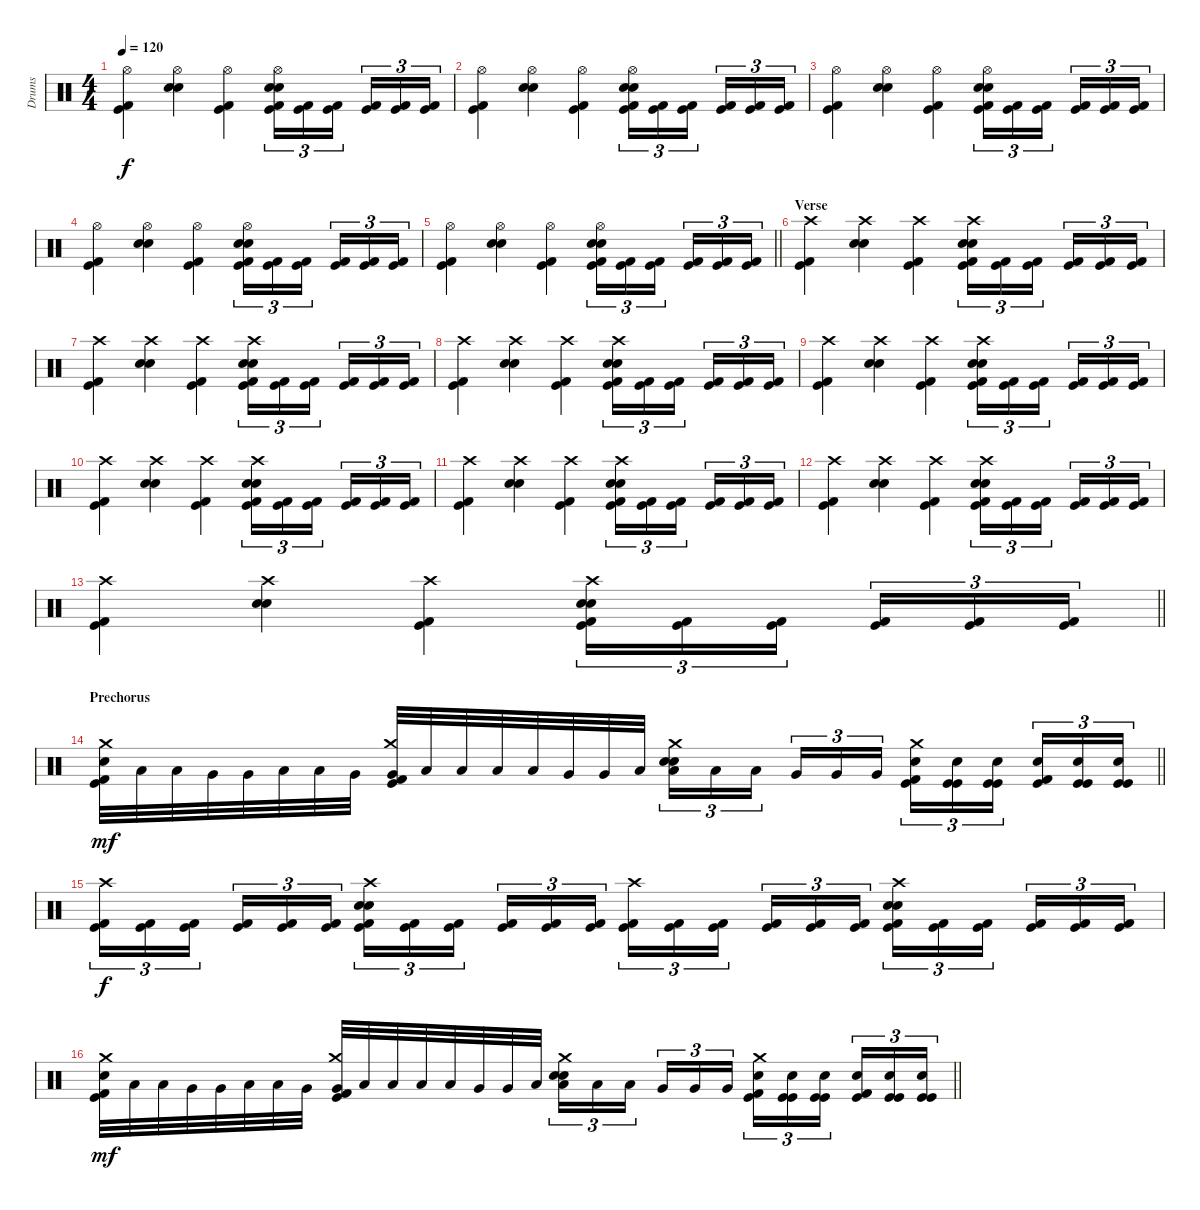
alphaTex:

\track ("Drums" "Drums") {instrument percussion}
\staff {score}
\articulation defaults
\ts (4 4)
\tempo 120
\clef neutral
\ks c
("Hi-Hat (open)" "Kick (hit) 2" "Kick (hit)").4{dy f} ("Hi-Hat (open)" "Electric Snare (hit)" "Electric Snare (hit)").4 ("Hi-Hat (open)" "Kick (hit) 2" "Kick (hit)").4 ("Hi-Hat (open)" "Electric Snare (hit)" "Electric Snare (hit)" "Kick (hit)" "Kick (hit) 2").16{tu (3 2)} ("Kick (hit)" "Kick (hit) 2").16{tu (3 2)} ("Kick (hit)" "Kick (hit) 2").16{tu (3 2) beam splitsecondary} ("Kick (hit)" "Kick (hit) 2").16{tu (3 2)} ("Kick (hit)" "Kick (hit) 2").16{tu (3 2)} ("Kick (hit)" "Kick (hit) 2").16{tu (3 2)} |
("Hi-Hat (open)" "Kick (hit) 2" "Kick (hit)").4 ("Hi-Hat (open)" "Electric Snare (hit)" "Electric Snare (hit)").4 ("Hi-Hat (open)" "Kick (hit) 2" "Kick (hit)").4 ("Hi-Hat (open)" "Electric Snare (hit)" "Electric Snare (hit)" "Kick (hit)" "Kick (hit) 2").16{tu (3 2)} ("Kick (hit)" "Kick (hit) 2").16{tu (3 2)} ("Kick (hit)" "Kick (hit) 2").16{tu (3 2) beam splitsecondary} ("Kick (hit)" "Kick (hit) 2").16{tu (3 2)} ("Kick (hit)" "Kick (hit) 2").16{tu (3 2)} ("Kick (hit)" "Kick (hit) 2").16{tu (3 2)} |
("Hi-Hat (open)" "Kick (hit) 2" "Kick (hit)").4 ("Hi-Hat (open)" "Electric Snare (hit)" "Electric Snare (hit)").4 ("Hi-Hat (open)" "Kick (hit) 2" "Kick (hit)").4 ("Hi-Hat (open)" "Electric Snare (hit)" "Electric Snare (hit)" "Kick (hit)" "Kick (hit) 2").16{tu (3 2)} ("Kick (hit)" "Kick (hit) 2").16{tu (3 2)} ("Kick (hit)" "Kick (hit) 2").16{tu (3 2) beam splitsecondary} ("Kick (hit)" "Kick (hit) 2").16{tu (3 2)} ("Kick (hit)" "Kick (hit) 2").16{tu (3 2)} ("Kick (hit)" "Kick (hit) 2").16{tu (3 2)} |
("Hi-Hat (open)" "Kick (hit) 2" "Kick (hit)").4 ("Hi-Hat (open)" "Electric Snare (hit)" "Electric Snare (hit)").4 ("Hi-Hat (open)" "Kick (hit) 2" "Kick (hit)").4 ("Hi-Hat (open)" "Electric Snare (hit)" "Electric Snare (hit)" "Kick (hit)" "Kick (hit) 2").16{tu (3 2)} ("Kick (hit)" "Kick (hit) 2").16{tu (3 2)} ("Kick (hit)" "Kick (hit) 2").16{tu (3 2) beam splitsecondary} ("Kick (hit)" "Kick (hit) 2").16{tu (3 2)} ("Kick (hit)" "Kick (hit) 2").16{tu (3 2)} ("Kick (hit)" "Kick (hit) 2").16{tu (3 2)} |
\barLineRight lightlight
("Hi-Hat (open)" "Kick (hit) 2" "Kick (hit)").4 ("Hi-Hat (open)" "Electric Snare (hit)" "Electric Snare (hit)").4 ("Hi-Hat (open)" "Kick (hit) 2" "Kick (hit)").4 ("Hi-Hat (open)" "Electric Snare (hit)" "Electric Snare (hit)" "Kick (hit)" "Kick (hit) 2").16{tu (3 2)} ("Kick (hit)" "Kick (hit) 2").16{tu (3 2)} ("Kick (hit)" "Kick (hit) 2").16{tu (3 2) beam splitsecondary} ("Kick (hit)" "Kick (hit) 2").16{tu (3 2)} ("Kick (hit)" "Kick (hit) 2").16{tu (3 2)} ("Kick (hit)" "Kick (hit) 2").16{tu (3 2)} |
\section ("" "Verse")
("Crash high (hit)" "Kick (hit) 2" "Kick (hit)").4 ("Crash high (hit)" "Electric Snare (hit)" "Electric Snare (hit)").4 ("Crash high (hit)" "Kick (hit) 2" "Kick (hit)").4 ("Crash high (hit)" "Electric Snare (hit)" "Electric Snare (hit)" "Kick (hit)" "Kick (hit) 2").16{tu (3 2)} ("Kick (hit)" "Kick (hit) 2").16{tu (3 2)} ("Kick (hit)" "Kick (hit) 2").16{tu (3 2) beam splitsecondary} ("Kick (hit)" "Kick (hit) 2").16{tu (3 2)} ("Kick (hit)" "Kick (hit) 2").16{tu (3 2)} ("Kick (hit)" "Kick (hit) 2").16{tu (3 2)} |
("Crash high (hit)" "Kick (hit) 2" "Kick (hit)").4 ("Crash high (hit)" "Electric Snare (hit)" "Electric Snare (hit)").4 ("Crash high (hit)" "Kick (hit) 2" "Kick (hit)").4 ("Crash high (hit)" "Electric Snare (hit)" "Electric Snare (hit)" "Kick (hit)" "Kick (hit) 2").16{tu (3 2)} ("Kick (hit)" "Kick (hit) 2").16{tu (3 2)} ("Kick (hit)" "Kick (hit) 2").16{tu (3 2) beam splitsecondary} ("Kick (hit)" "Kick (hit) 2").16{tu (3 2)} ("Kick (hit)" "Kick (hit) 2").16{tu (3 2)} ("Kick (hit)" "Kick (hit) 2").16{tu (3 2)} |
("Crash high (hit)" "Kick (hit) 2" "Kick (hit)").4 ("Crash high (hit)" "Electric Snare (hit)" "Electric Snare (hit)").4 ("Crash high (hit)" "Kick (hit) 2" "Kick (hit)").4 ("Crash high (hit)" "Electric Snare (hit)" "Electric Snare (hit)" "Kick (hit)" "Kick (hit) 2").16{tu (3 2)} ("Kick (hit)" "Kick (hit) 2").16{tu (3 2)} ("Kick (hit)" "Kick (hit) 2").16{tu (3 2) beam splitsecondary} ("Kick (hit)" "Kick (hit) 2").16{tu (3 2)} ("Kick (hit)" "Kick (hit) 2").16{tu (3 2)} ("Kick (hit)" "Kick (hit) 2").16{tu (3 2)} |
("Crash high (hit)" "Kick (hit) 2" "Kick (hit)").4 ("Crash high (hit)" "Electric Snare (hit)" "Electric Snare (hit)").4 ("Crash high (hit)" "Kick (hit) 2" "Kick (hit)").4 ("Crash high (hit)" "Electric Snare (hit)" "Electric Snare (hit)" "Kick (hit)" "Kick (hit) 2").16{tu (3 2)} ("Kick (hit)" "Kick (hit) 2").16{tu (3 2)} ("Kick (hit)" "Kick (hit) 2").16{tu (3 2) beam splitsecondary} ("Kick (hit)" "Kick (hit) 2").16{tu (3 2)} ("Kick (hit)" "Kick (hit) 2").16{tu (3 2)} ("Kick (hit)" "Kick (hit) 2").16{tu (3 2)} |
("Crash high (hit)" "Kick (hit) 2" "Kick (hit)").4 ("Crash high (hit)" "Electric Snare (hit)" "Electric Snare (hit)").4 ("Crash high (hit)" "Kick (hit) 2" "Kick (hit)").4 ("Crash high (hit)" "Electric Snare (hit)" "Electric Snare (hit)" "Kick (hit)" "Kick (hit) 2").16{tu (3 2)} ("Kick (hit)" "Kick (hit) 2").16{tu (3 2)} ("Kick (hit)" "Kick (hit) 2").16{tu (3 2) beam splitsecondary} ("Kick (hit)" "Kick (hit) 2").16{tu (3 2)} ("Kick (hit)" "Kick (hit) 2").16{tu (3 2)} ("Kick (hit)" "Kick (hit) 2").16{tu (3 2)} |
("Crash high (hit)" "Kick (hit) 2" "Kick (hit)").4 ("Crash high (hit)" "Electric Snare (hit)" "Electric Snare (hit)").4 ("Crash high (hit)" "Kick (hit) 2" "Kick (hit)").4 ("Crash high (hit)" "Electric Snare (hit)" "Electric Snare (hit)" "Kick (hit)" "Kick (hit) 2").16{tu (3 2)} ("Kick (hit)" "Kick (hit) 2").16{tu (3 2)} ("Kick (hit)" "Kick (hit) 2").16{tu (3 2) beam splitsecondary} ("Kick (hit)" "Kick (hit) 2").16{tu (3 2)} ("Kick (hit)" "Kick (hit) 2").16{tu (3 2)} ("Kick (hit)" "Kick (hit) 2").16{tu (3 2)} |
("Crash high (hit)" "Kick (hit) 2" "Kick (hit)").4 ("Crash high (hit)" "Electric Snare (hit)" "Electric Snare (hit)").4 ("Crash high (hit)" "Kick (hit) 2" "Kick (hit)").4 ("Crash high (hit)" "Electric Snare (hit)" "Electric Snare (hit)" "Kick (hit)" "Kick (hit) 2").16{tu (3 2)} ("Kick (hit)" "Kick (hit) 2").16{tu (3 2)} ("Kick (hit)" "Kick (hit) 2").16{tu (3 2) beam splitsecondary} ("Kick (hit)" "Kick (hit) 2").16{tu (3 2)} ("Kick (hit)" "Kick (hit) 2").16{tu (3 2)} ("Kick (hit)" "Kick (hit) 2").16{tu (3 2)} |
\barLineRight lightlight
("Crash high (hit)" "Kick (hit) 2" "Kick (hit)").4 ("Crash high (hit)" "Electric Snare (hit)" "Electric Snare (hit)").4 ("Crash high (hit)" "Kick (hit) 2" "Kick (hit)").4 ("Crash high (hit)" "Electric Snare (hit)" "Electric Snare (hit)" "Kick (hit)" "Kick (hit) 2").16{tu (3 2)} ("Kick (hit)" "Kick (hit) 2").16{tu (3 2)} ("Kick (hit)" "Kick (hit) 2").16{tu (3 2) beam splitsecondary} ("Kick (hit)" "Kick (hit) 2").16{tu (3 2)} ("Kick (hit)" "Kick (hit) 2").16{tu (3 2)} ("Kick (hit)" "Kick (hit) 2").16{tu (3 2)} |
\section ("" "Prechorus")
\barLineRight lightlight
("Crash medium (hit)" "Electric Snare (hit)" "Kick (hit)" "Kick (hit) 2").32{dy mf} "Low Tom (hit)".32 "Low Tom (hit)".32 "Very Low Tom (hit)".32 "Very Low Tom (hit)".32 "Low Floor Tom (hit)".32 "Low Floor Tom (hit)".32 "Very Low Tom (hit)".32 ("Crash medium (hit)" "Very Low Tom (hit)" "Kick (hit)" "Kick (hit) 2").32 "Low Floor Tom (hit)".32 "Low Floor Tom (hit)".32 "Low Tom (hit)".32 "Low Tom (hit)".32 "Very Low Tom (hit)".32 "Very Low Tom (hit)".32 "Low Floor Tom (hit)".32 ("Crash medium (hit)" "Low Floor Tom (hit)" "Electric Snare (hit)" "Electric Snare (hit)").16{tu (3 2)} "Low Floor Tom (hit)".16{tu (3 2)} "Low Floor Tom (hit)".16{tu (3 2) beam splitsecondary} "Very Low Tom (hit)".16{tu (3 2)} "Very Low Tom (hit)".16{tu (3 2)} "Very Low Tom (hit)".16{tu (3 2)} ("Crash medium (hit)" "Electric Snare (hit)" "Kick (hit)" "Kick (hit) 2").16{tu (3 2)} ("Electric Snare (hit)" "Kick (hit)" "Kick (hit)").16{tu (3 2)} ("Electric Snare (hit)" "Kick (hit)" "Kick (hit)").16{tu (3 2) beam splitsecondary} ("Electric Snare (hit)" "Kick (hit) 2" "Kick (hit)").16{tu (3 2)} ("Electric Snare (hit)" "Kick (hit)" "Kick (hit)").16{tu (3 2)} ("Electric Snare (hit)" "Kick (hit)" "Kick (hit)").16{tu (3 2)} |
("Crash high (hit)" "Kick (hit) 2" "Kick (hit)").16{tu (3 2) dy f} ("Kick (hit) 2" "Kick (hit)").16{tu (3 2)} ("Kick (hit) 2" "Kick (hit)").16{tu (3 2) beam splitsecondary} ("Kick (hit) 2" "Kick (hit)").16{tu (3 2)} ("Kick (hit) 2" "Kick (hit)").16{tu (3 2)} ("Kick (hit) 2" "Kick (hit)").16{tu (3 2)} ("Crash high (hit)" "Electric Snare (hit)" "Electric Snare (hit)" "Kick (hit) 2" "Kick (hit)").16{tu (3 2)} ("Kick (hit) 2" "Kick (hit)").16{tu (3 2)} ("Kick (hit) 2" "Kick (hit)").16{tu (3 2) beam splitsecondary} ("Kick (hit) 2" "Kick (hit)").16{tu (3 2)} ("Kick (hit) 2" "Kick (hit)").16{tu (3 2)} ("Kick (hit) 2" "Kick (hit)").16{tu (3 2)} ("Crash high (hit)" "Kick (hit) 2" "Kick (hit)").16{tu (3 2)} ("Kick (hit) 2" "Kick (hit)").16{tu (3 2)} ("Kick (hit) 2" "Kick (hit)").16{tu (3 2) beam splitsecondary} ("Kick (hit) 2" "Kick (hit)").16{tu (3 2)} ("Kick (hit) 2" "Kick (hit)").16{tu (3 2)} ("Kick (hit) 2" "Kick (hit)").16{tu (3 2)} ("Crash high (hit)" "Electric Snare (hit)" "Electric Snare (hit)" "Kick (hit) 2" "Kick (hit)").16{tu (3 2)} ("Kick (hit) 2" "Kick (hit)").16{tu (3 2)} ("Kick (hit) 2" "Kick (hit)").16{tu (3 2) beam splitsecondary} ("Kick (hit) 2" "Kick (hit)").16{tu (3 2)} ("Kick (hit) 2" "Kick (hit)").16{tu (3 2)} ("Kick (hit) 2" "Kick (hit)").16{tu (3 2)} |
\barLineRight lightlight
("Crash medium (hit)" "Electric Snare (hit)" "Kick (hit)" "Kick (hit) 2").32{dy mf} "Low Tom (hit)".32 "Low Tom (hit)".32 "Very Low Tom (hit)".32 "Very Low Tom (hit)".32 "Low Floor Tom (hit)".32 "Low Floor Tom (hit)".32 "Very Low Tom (hit)".32 ("Crash medium (hit)" "Very Low Tom (hit)" "Kick (hit)" "Kick (hit) 2").32 "Low Floor Tom (hit)".32 "Low Floor Tom (hit)".32 "Low Tom (hit)".32 "Low Tom (hit)".32 "Very Low Tom (hit)".32 "Very Low Tom (hit)".32 "Low Floor Tom (hit)".32 ("Crash medium (hit)" "Low Floor Tom (hit)" "Electric Snare (hit)" "Electric Snare (hit)").16{tu (3 2)} "Low Floor Tom (hit)".16{tu (3 2)} "Low Floor Tom (hit)".16{tu (3 2) beam splitsecondary} "Very Low Tom (hit)".16{tu (3 2)} "Very Low Tom (hit)".16{tu (3 2)} "Very Low Tom (hit)".16{tu (3 2)} ("Crash medium (hit)" "Electric Snare (hit)" "Kick (hit)" "Kick (hit) 2").16{tu (3 2)} ("Electric Snare (hit)" "Kick (hit)" "Kick (hit)").16{tu (3 2)} ("Electric Snare (hit)" "Kick (hit)" "Kick (hit)").16{tu (3 2) beam splitsecondary} ("Electric Snare (hit)" "Kick (hit) 2" "Kick (hit)").16{tu (3 2)} ("Electric Snare (hit)" "Kick (hit)" "Kick (hit)").16{tu (3 2)} ("Electric Snare (hit)" "Kick (hit)" "Kick (hit)").16{tu (3 2)}
